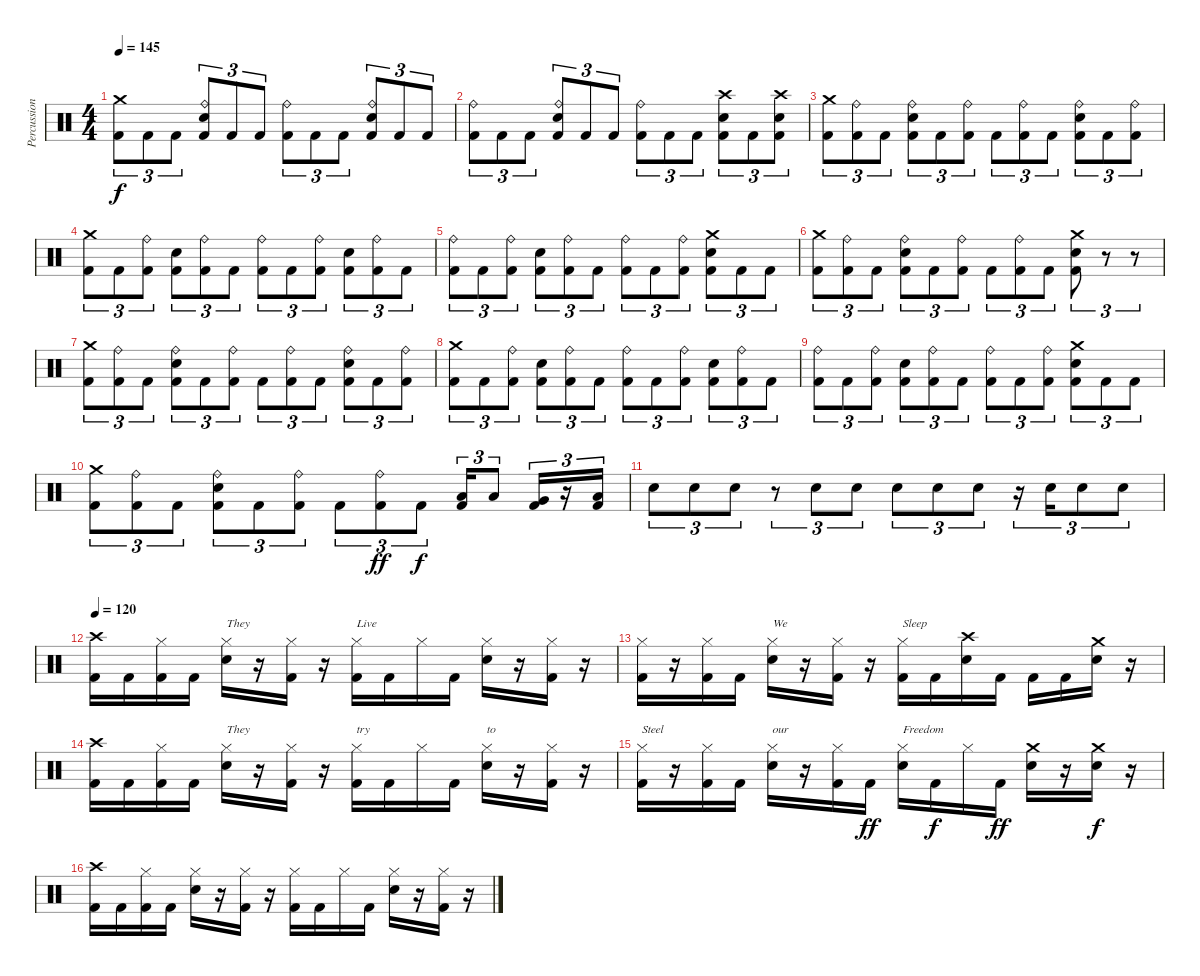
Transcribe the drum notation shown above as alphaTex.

\track ("Percussion" "Percussion") {instrument percussion}
\staff {score}
\articulation defaults
\ts (4 4)
\tempo 145
\clef neutral
\ks c
("Crash medium (hit)" "Kick (hit) 2").8{tu (3 2) dy f} "Kick (hit) 2".8{tu (3 2)} "Kick (hit) 2".8{tu (3 2)} ("Ride (bell)" "Snare (hit) 2" "Kick (hit) 2").8{tu (3 2)} "Kick (hit) 2".8{tu (3 2)} "Kick (hit) 2".8{tu (3 2)} ("Ride (bell)" "Kick (hit) 2").8{tu (3 2)} "Kick (hit) 2".8{tu (3 2)} "Kick (hit) 2".8{tu (3 2)} ("Ride (bell)" "Snare (hit) 2" "Kick (hit) 2").8{tu (3 2)} "Kick (hit) 2".8{tu (3 2)} "Kick (hit) 2".8{tu (3 2)} |
("Ride (bell)" "Kick (hit) 2").8{tu (3 2)} "Kick (hit) 2".8{tu (3 2)} "Kick (hit) 2".8{tu (3 2)} ("Ride (bell)" "Snare (hit) 2" "Kick (hit) 2").8{tu (3 2)} "Kick (hit) 2".8{tu (3 2)} "Kick (hit) 2".8{tu (3 2)} ("Ride (bell)" "Kick (hit) 2").8{tu (3 2)} "Kick (hit) 2".8{tu (3 2)} "Kick (hit) 2".8{tu (3 2)} ("Crash high (hit)" "Snare (hit) 2" "Kick (hit) 2").8{tu (3 2)} "Kick (hit) 2".8{tu (3 2)} ("Crash high (hit)" "Snare (hit) 2" "Kick (hit) 2").8{tu (3 2)} |
("Crash medium (hit)" "Kick (hit) 2").8{tu (3 2)} ("Ride (bell)" "Kick (hit) 2").8{tu (3 2)} "Kick (hit) 2".8{tu (3 2)} ("Ride (bell)" "Snare (hit) 2" "Kick (hit) 2").8{tu (3 2)} "Kick (hit) 2".8{tu (3 2)} ("Ride (bell)" "Kick (hit) 2").8{tu (3 2)} "Kick (hit) 2".8{tu (3 2)} ("Ride (bell)" "Kick (hit) 2").8{tu (3 2)} "Kick (hit) 2".8{tu (3 2)} ("Ride (bell)" "Snare (hit) 2" "Kick (hit) 2").8{tu (3 2)} "Kick (hit) 2".8{tu (3 2)} ("Ride (bell)" "Kick (hit) 2").8{tu (3 2)} |
("Crash medium (hit)" "Kick (hit) 2").8{tu (3 2)} "Kick (hit) 2".8{tu (3 2)} ("Ride (bell)" "Kick (hit) 2").8{tu (3 2)} ("Snare (hit) 2" "Kick (hit) 2").8{tu (3 2)} ("Ride (bell)" "Kick (hit) 2").8{tu (3 2)} "Kick (hit) 2".8{tu (3 2)} ("Ride (bell)" "Kick (hit) 2").8{tu (3 2)} "Kick (hit) 2".8{tu (3 2)} ("Ride (bell)" "Kick (hit) 2").8{tu (3 2)} ("Snare (hit) 2" "Kick (hit) 2").8{tu (3 2)} ("Ride (bell)" "Kick (hit) 2").8{tu (3 2)} "Kick (hit) 2".8{tu (3 2)} |
("Ride (bell)" "Kick (hit) 2").8{tu (3 2)} "Kick (hit) 2".8{tu (3 2)} ("Ride (bell)" "Kick (hit) 2").8{tu (3 2)} ("Snare (hit) 2" "Kick (hit) 2").8{tu (3 2)} ("Ride (bell)" "Kick (hit) 2").8{tu (3 2)} "Kick (hit) 2".8{tu (3 2)} ("Ride (bell)" "Kick (hit) 2").8{tu (3 2)} "Kick (hit) 2".8{tu (3 2)} ("Ride (bell)" "Kick (hit) 2").8{tu (3 2)} ("Crash medium (hit)" "Snare (hit) 2" "Kick (hit) 2").8{tu (3 2)} "Kick (hit) 2".8{tu (3 2)} "Kick (hit) 2".8{tu (3 2)} |
("Crash medium (hit)" "Kick (hit) 2").8{tu (3 2)} ("Ride (bell)" "Kick (hit) 2").8{tu (3 2)} "Kick (hit) 2".8{tu (3 2)} ("Ride (bell)" "Snare (hit) 2" "Kick (hit) 2").8{tu (3 2)} "Kick (hit) 2".8{tu (3 2)} ("Ride (bell)" "Kick (hit) 2").8{tu (3 2)} "Kick (hit) 2".8{tu (3 2)} ("Ride (bell)" "Kick (hit) 2").8{tu (3 2)} "Kick (hit) 2".8{tu (3 2)} ("Crash medium (hit)" "Snare (hit) 2" "Kick (hit) 2").8{tu (3 2)} r.8{tu (3 2)} r.8{tu (3 2)} |
("Crash medium (hit)" "Kick (hit) 2").8{tu (3 2)} ("Ride (bell)" "Kick (hit) 2").8{tu (3 2)} "Kick (hit) 2".8{tu (3 2)} ("Ride (bell)" "Snare (hit) 2" "Kick (hit) 2").8{tu (3 2)} "Kick (hit) 2".8{tu (3 2)} ("Ride (bell)" "Kick (hit) 2").8{tu (3 2)} "Kick (hit) 2".8{tu (3 2)} ("Ride (bell)" "Kick (hit) 2").8{tu (3 2)} "Kick (hit) 2".8{tu (3 2)} ("Ride (bell)" "Snare (hit) 2" "Kick (hit) 2").8{tu (3 2)} "Kick (hit) 2".8{tu (3 2)} ("Ride (bell)" "Kick (hit) 2").8{tu (3 2)} |
("Crash medium (hit)" "Kick (hit) 2").8{tu (3 2)} "Kick (hit) 2".8{tu (3 2)} ("Ride (bell)" "Kick (hit) 2").8{tu (3 2)} ("Snare (hit) 2" "Kick (hit) 2").8{tu (3 2)} ("Ride (bell)" "Kick (hit) 2").8{tu (3 2)} "Kick (hit) 2".8{tu (3 2)} ("Ride (bell)" "Kick (hit) 2").8{tu (3 2)} "Kick (hit) 2".8{tu (3 2)} ("Ride (bell)" "Kick (hit) 2").8{tu (3 2)} ("Snare (hit) 2" "Kick (hit) 2").8{tu (3 2)} ("Ride (bell)" "Kick (hit) 2").8{tu (3 2)} "Kick (hit) 2".8{tu (3 2)} |
("Ride (bell)" "Kick (hit) 2").8{tu (3 2)} "Kick (hit) 2".8{tu (3 2)} ("Ride (bell)" "Kick (hit) 2").8{tu (3 2)} ("Snare (hit) 2" "Kick (hit) 2").8{tu (3 2)} ("Ride (bell)" "Kick (hit) 2").8{tu (3 2)} "Kick (hit) 2".8{tu (3 2)} ("Ride (bell)" "Kick (hit) 2").8{tu (3 2)} "Kick (hit) 2".8{tu (3 2)} ("Ride (bell)" "Kick (hit) 2").8{tu (3 2)} ("Crash medium (hit)" "Snare (hit) 2" "Kick (hit) 2").8{tu (3 2)} "Kick (hit) 2".8{tu (3 2)} "Kick (hit) 2".8{tu (3 2)} |
("Crash medium (hit)" "Kick (hit) 2").8{tu (3 2)} ("Ride (bell)" "Kick (hit) 2").8{tu (3 2)} "Kick (hit) 2".8{tu (3 2)} ("Ride (bell)" "Snare (hit) 2" "Kick (hit) 2").8{tu (3 2)} "Kick (hit) 2".8{tu (3 2)} ("Ride (bell)" "Kick (hit) 2").8{tu (3 2)} "Kick (hit) 2".8{tu (3 2)} ("Ride (bell)" "Kick (hit) 2").8{tu (3 2) dy ff} "Kick (hit) 2".8{tu (3 2) dy f} ("Low Tom (hit)" "Kick (hit) 2").16{tu (3 2)} "Low Tom (hit)".8{tu (3 2)} ("Very Low Tom (hit)" "Kick (hit) 2").16{tu (3 2)} r.16{tu (3 2)} ("Low Floor Tom (hit)" "Kick (hit) 2").16{tu (3 2)} |
"Snare (hit) 2".8{tu (3 2)} "Snare (hit) 2".8{tu (3 2)} "Snare (hit) 2".8{tu (3 2)} r.8{tu (3 2)} "Snare (hit) 2".8{tu (3 2)} "Snare (hit) 2".8{tu (3 2)} "Snare (hit) 2".8{tu (3 2)} "Snare (hit) 2".8{tu (3 2)} "Snare (hit) 2".8{tu (3 2)} r.16{tu (3 2)} "Snare (hit) 2".16{tu (3 2)} "Snare (hit) 2".8{tu (3 2)} "Snare (hit) 2".8{tu (3 2)} |
\tempo 145
\tempo 120
("Crash high (hit)" "Kick (hit) 2").16 "Kick (hit) 2".16 ("Hi-Hat (closed)" "Kick (hit) 2").16 "Kick (hit) 2".16 ("Hi-Hat (closed)" "Snare (hit) 2").16{txt "They"} r.16 ("Hi-Hat (closed)" "Kick (hit) 2").16 r.16 ("Hi-Hat (closed)" "Kick (hit) 2").16{txt "Live"} "Kick (hit) 2".16 "Hi-Hat (closed)".16 "Kick (hit) 2".16 ("Hi-Hat (closed)" "Snare (hit) 2").16 r.16 ("Hi-Hat (closed)" "Kick (hit) 2").16 r.16 |
("Hi-Hat (closed)" "Kick (hit) 2").16 r.16 ("Hi-Hat (closed)" "Kick (hit) 2").16 "Kick (hit) 2".16 ("Hi-Hat (closed)" "Snare (hit) 2").16{txt "We"} r.16 ("Hi-Hat (closed)" "Kick (hit) 2").16 r.16 ("Hi-Hat (closed)" "Kick (hit) 2").16{txt "Sleep"} "Kick (hit) 2".16 ("Crash high (hit)" "Snare (hit) 2").16 "Kick (hit) 2".16 "Kick (hit) 2".16 "Kick (hit) 2".16 ("Crash medium (hit)" "Snare (hit) 2").16 r.16 |
("Crash high (hit)" "Kick (hit) 2").16 "Kick (hit) 2".16 ("Hi-Hat (closed)" "Kick (hit) 2").16 "Kick (hit) 2".16 ("Hi-Hat (closed)" "Snare (hit) 2").16{txt "They"} r.16 ("Hi-Hat (closed)" "Kick (hit) 2").16 r.16 ("Hi-Hat (closed)" "Kick (hit) 2").16{txt "try"} "Kick (hit) 2".16 "Hi-Hat (closed)".16 "Kick (hit) 2".16 ("Hi-Hat (closed)" "Snare (hit) 2").16{txt "to"} r.16 ("Hi-Hat (closed)" "Kick (hit) 2").16 r.16 |
("Hi-Hat (closed)" "Kick (hit) 2").16{txt "Steel"} r.16 ("Hi-Hat (closed)" "Kick (hit) 2").16 "Kick (hit) 2".16 ("Hi-Hat (closed)" "Snare (hit) 2").16{txt "our"} r.16 ("Hi-Hat (closed)" "Kick (hit) 2").16 "Kick (hit) 2".16{dy ff} ("Hi-Hat (closed)" "Snare (hit) 2").16{txt "Freedom"} "Kick (hit) 2".16{dy f} "Hi-Hat (closed)".16 "Kick (hit) 2".16{dy ff} ("Crash medium (hit)" "Snare (hit) 2").16 r.16 ("Crash medium (hit)" "Snare (hit) 2").16{dy f} r.16 |
("Crash high (hit)" "Kick (hit) 2").16 "Kick (hit) 2".16 ("Hi-Hat (closed)" "Kick (hit) 2").16 "Kick (hit) 2".16 ("Hi-Hat (closed)" "Snare (hit) 2").16 r.16 ("Hi-Hat (closed)" "Kick (hit) 2").16 r.16 ("Hi-Hat (closed)" "Kick (hit) 2").16 "Kick (hit) 2".16 "Hi-Hat (closed)".16 "Kick (hit) 2".16 ("Hi-Hat (closed)" "Snare (hit) 2").16 r.16 ("Hi-Hat (closed)" "Kick (hit) 2").16 r.16
